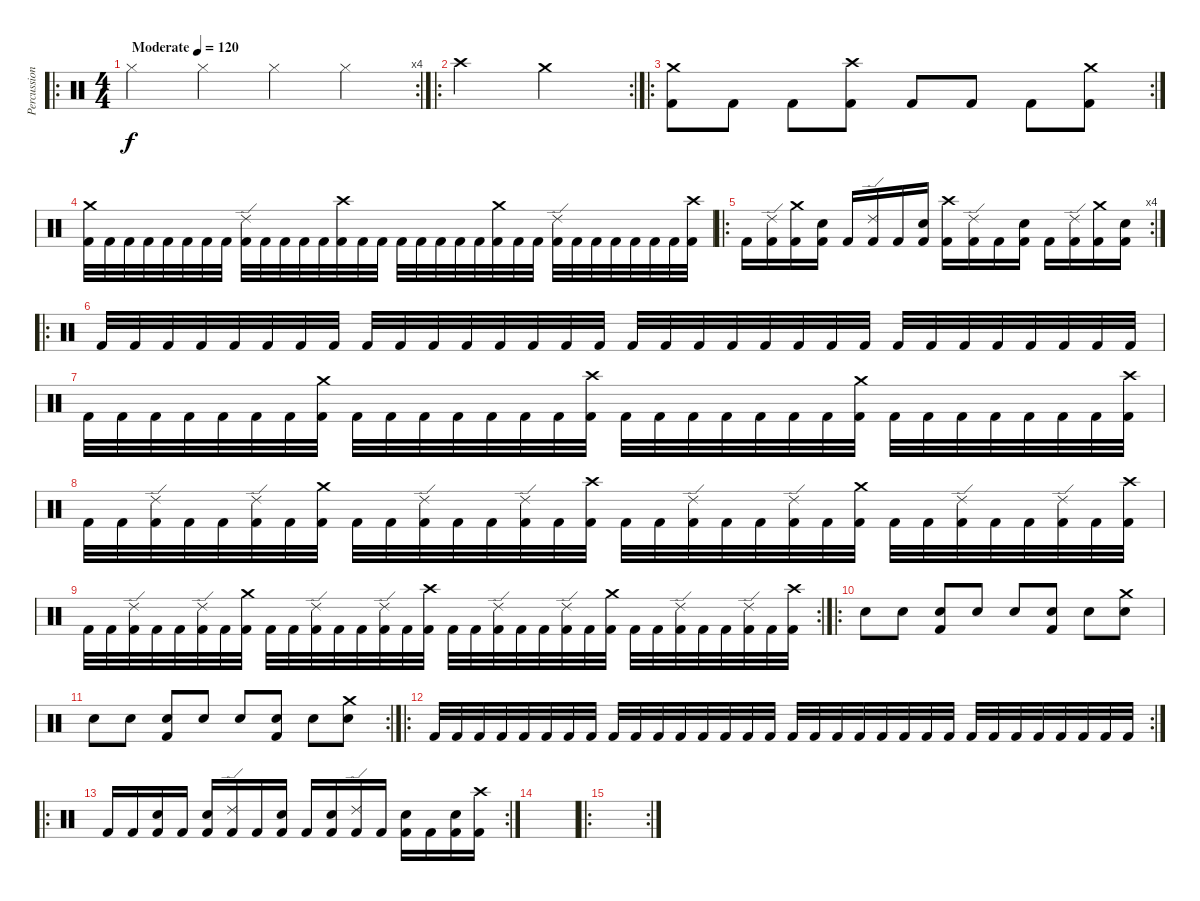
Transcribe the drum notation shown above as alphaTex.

\track ("Percussion" "Percussion") {instrument percussion}
\staff {score}
\articulation defaults
\ro
\rc 4
\ts (4 4)
\tempo (120 "Moderate")
\clef neutral
\ks c "Hi-Hat (closed)".4{dy f} "Hi-Hat (closed)".4 "Hi-Hat (closed)".4 "Hi-Hat (closed)".4
|
\ro
\rc 2 "Crash high (hit)".2 "Crash medium (hit)".2
|
\ro
\rc 2
("Crash medium (hit)" "Kick (hit) 2").8 "Kick (hit) 2".8 "Kick (hit) 2".8 ("Crash high (hit)" "Kick (hit) 2").8 "Kick (hit) 2".8 "Kick (hit) 2".8 "Kick (hit) 2".8 ("Crash medium (hit)" "Kick (hit) 2").8 |
("Crash medium (hit)" "Kick (hit) 2").32 "Kick (hit) 2".32 "Kick (hit) 2".32 "Kick (hit) 2".32 "Kick (hit) 2".32 "Kick (hit) 2".32 "Kick (hit) 2".32 "Kick (hit) 2".32 ("Ride (edge) 2" "Kick (hit) 2").32 "Kick (hit) 2".32 "Kick (hit) 2".32 "Kick (hit) 2".32 "Kick (hit) 2".32 ("Crash high (hit)" "Kick (hit) 2").32 "Kick (hit) 2".32 "Kick (hit) 2".32 "Kick (hit) 2".32 "Kick (hit) 2".32 "Kick (hit) 2".32 "Kick (hit) 2".32 "Kick (hit) 2".32 ("Crash medium (hit)" "Kick (hit) 2").32 "Kick (hit) 2".32 "Kick (hit) 2".32 ("Ride (edge) 2" "Kick (hit) 2").32 "Kick (hit) 2".32 "Kick (hit) 2".32 "Kick (hit) 2".32 "Kick (hit) 2".32 "Kick (hit) 2".32 "Kick (hit) 2".32 ("Crash high (hit)" "Kick (hit) 2").32 |
\ro
\rc 4 "Kick (hit) 2".16
("Ride (edge) 2" "Kick (hit) 2").16 ("Crash medium (hit)" "Kick (hit) 2").16 ("Electric Snare (hit)" "Kick (hit) 2").16 "Kick (hit) 2".16 ("Ride (edge) 2" "Kick (hit) 2").16 "Kick (hit) 2".16 ("Electric Snare (hit)" "Kick (hit) 2").16 ("Crash high (hit)" "Kick (hit) 2").16 ("Ride (edge) 2" "Kick (hit) 2").16 "Kick (hit) 2".16 ("Electric Snare (hit)" "Kick (hit) 2").16 "Kick (hit) 2".16 ("Ride (edge) 2" "Kick (hit) 2").16 ("Crash medium (hit)" "Kick (hit) 2").16 ("Electric Snare (hit)" "Kick (hit) 2").16 |
\ro "Kick (hit) 2".32 "Kick (hit) 2".32 "Kick (hit) 2".32 "Kick (hit) 2".32 "Kick (hit) 2".32 "Kick (hit) 2".32 "Kick (hit) 2".32 "Kick (hit) 2".32 "Kick (hit) 2".32 "Kick (hit) 2".32 "Kick (hit) 2".32 "Kick (hit) 2".32 "Kick (hit) 2".32 "Kick (hit) 2".32 "Kick (hit) 2".32 "Kick (hit) 2".32 "Kick (hit) 2".32 "Kick (hit) 2".32 "Kick (hit) 2".32 "Kick (hit) 2".32 "Kick (hit) 2".32 "Kick (hit) 2".32 "Kick (hit) 2".32 "Kick (hit) 2".32 "Kick (hit) 2".32 "Kick (hit) 2".32 "Kick (hit) 2".32 "Kick (hit) 2".32 "Kick (hit) 2".32 "Kick (hit) 2".32 "Kick (hit) 2".32 "Kick (hit) 2".32
|
"Kick (hit) 2".32 "Kick (hit) 2".32 "Kick (hit) 2".32 "Kick (hit) 2".32 "Kick (hit) 2".32 "Kick (hit) 2".32 "Kick (hit) 2".32 ("Crash medium (hit)" "Kick (hit) 2").32 "Kick (hit) 2".32 "Kick (hit) 2".32 "Kick (hit) 2".32 "Kick (hit) 2".32 "Kick (hit) 2".32 "Kick (hit) 2".32 "Kick (hit) 2".32 ("Crash high (hit)" "Kick (hit) 2").32 "Kick (hit) 2".32 "Kick (hit) 2".32 "Kick (hit) 2".32 "Kick (hit) 2".32 "Kick (hit) 2".32 "Kick (hit) 2".32 "Kick (hit) 2".32 ("Crash medium (hit)" "Kick (hit) 2").32 "Kick (hit) 2".32 "Kick (hit) 2".32 "Kick (hit) 2".32 "Kick (hit) 2".32 "Kick (hit) 2".32 "Kick (hit) 2".32 "Kick (hit) 2".32 ("Crash high (hit)" "Kick (hit) 2").32 |
"Kick (hit) 2".32 "Kick (hit) 2".32 ("Ride (edge) 2" "Kick (hit) 2").32 "Kick (hit) 2".32 "Kick (hit) 2".32 ("Ride (edge) 2" "Kick (hit) 2").32 "Kick (hit) 2".32 ("Crash medium (hit)" "Kick (hit) 2").32 "Kick (hit) 2".32 "Kick (hit) 2".32 ("Ride (edge) 2" "Kick (hit) 2").32 "Kick (hit) 2".32 "Kick (hit) 2".32 ("Ride (edge) 2" "Kick (hit) 2").32 "Kick (hit) 2".32 ("Crash high (hit)" "Kick (hit) 2").32 "Kick (hit) 2".32 "Kick (hit) 2".32 ("Ride (edge) 2" "Kick (hit) 2").32 "Kick (hit) 2".32 "Kick (hit) 2".32 ("Ride (edge) 2" "Kick (hit) 2").32 "Kick (hit) 2".32 ("Crash medium (hit)" "Kick (hit) 2").32 "Kick (hit) 2".32 "Kick (hit) 2".32 ("Ride (edge) 2" "Kick (hit) 2").32 "Kick (hit) 2".32 "Kick (hit) 2".32 ("Ride (edge) 2" "Kick (hit) 2").32 "Kick (hit) 2".32 ("Crash high (hit)" "Kick (hit) 2").32 |
\rc 2 "Kick (hit) 2".32 "Kick (hit) 2".32
("Ride (edge) 2" "Kick (hit) 2").32 "Kick (hit) 2".32 "Kick (hit) 2".32 ("Ride (edge) 2" "Kick (hit) 2").32 "Kick (hit) 2".32 ("Crash medium (hit)" "Kick (hit) 2").32 "Kick (hit) 2".32 "Kick (hit) 2".32 ("Ride (edge) 2" "Kick (hit) 2").32 "Kick (hit) 2".32 "Kick (hit) 2".32 ("Ride (edge) 2" "Kick (hit) 2").32 "Kick (hit) 2".32 ("Crash high (hit)" "Kick (hit) 2").32 "Kick (hit) 2".32 "Kick (hit) 2".32 ("Ride (edge) 2" "Kick (hit) 2").32 "Kick (hit) 2".32 "Kick (hit) 2".32 ("Ride (edge) 2" "Kick (hit) 2").32 "Kick (hit) 2".32 ("Crash medium (hit)" "Kick (hit) 2").32 "Kick (hit) 2".32 "Kick (hit) 2".32 ("Ride (edge) 2" "Kick (hit) 2").32 "Kick (hit) 2".32 "Kick (hit) 2".32 ("Ride (edge) 2" "Kick (hit) 2").32 "Kick (hit) 2".32 ("Crash high (hit)" "Kick (hit) 2").32 |
\ro "Electric Snare (hit)".8 "Electric Snare (hit)".8
("Kick (hit) 2" "Electric Snare (hit)").8 "Electric Snare (hit)".8 "Electric Snare (hit)".8 ("Kick (hit) 2" "Electric Snare (hit)").8 "Electric Snare (hit)".8 ("Crash medium (hit)" "Electric Snare (hit)").8 |
\rc 2 "Electric Snare (hit)".8 "Electric Snare (hit)".8
("Kick (hit) 2" "Electric Snare (hit)").8 "Electric Snare (hit)".8 "Electric Snare (hit)".8 ("Kick (hit) 2" "Electric Snare (hit)").8 "Electric Snare (hit)".8 ("Crash medium (hit)" "Electric Snare (hit)").8 |
\ro
\rc 2 "Kick (hit) 2".32 "Kick (hit) 2".32 "Kick (hit) 2".32 "Kick (hit) 2".32 "Kick (hit) 2".32 "Kick (hit) 2".32 "Kick (hit) 2".32 "Kick (hit) 2".32 "Kick (hit) 2".32 "Kick (hit) 2".32 "Kick (hit) 2".32 "Kick (hit) 2".32 "Kick (hit) 2".32 "Kick (hit) 2".32 "Kick (hit) 2".32 "Kick (hit) 2".32 "Kick (hit) 2".32 "Kick (hit) 2".32 "Kick (hit) 2".32 "Kick (hit) 2".32 "Kick (hit) 2".32 "Kick (hit) 2".32 "Kick (hit) 2".32 "Kick (hit) 2".32 "Kick (hit) 2".32 "Kick (hit) 2".32 "Kick (hit) 2".32 "Kick (hit) 2".32 "Kick (hit) 2".32 "Kick (hit) 2".32 "Kick (hit) 2".32 "Kick (hit) 2".32
|
\ro
\rc 2 "Kick (hit) 2".16 "Kick (hit) 2".16
("Electric Snare (hit)" "Kick (hit) 2").16 "Kick (hit) 2".16 ("Electric Snare (hit)" "Kick (hit) 2").16 ("Ride (edge) 2" "Kick (hit) 2").16 "Kick (hit) 2".16 ("Electric Snare (hit)" "Kick (hit) 2").16 "Kick (hit) 2".16 ("Electric Snare (hit)" "Kick (hit) 2").16 ("Ride (edge) 2" "Kick (hit) 2").16 "Kick (hit) 2".16 ("Electric Snare (hit)" "Kick (hit) 2").16 "Kick (hit) 2".16 ("Electric Snare (hit)" "Kick (hit) 2").16 ("Crash high (hit)" "Kick (hit) 2").16 |
|
\ro
\rc 2
